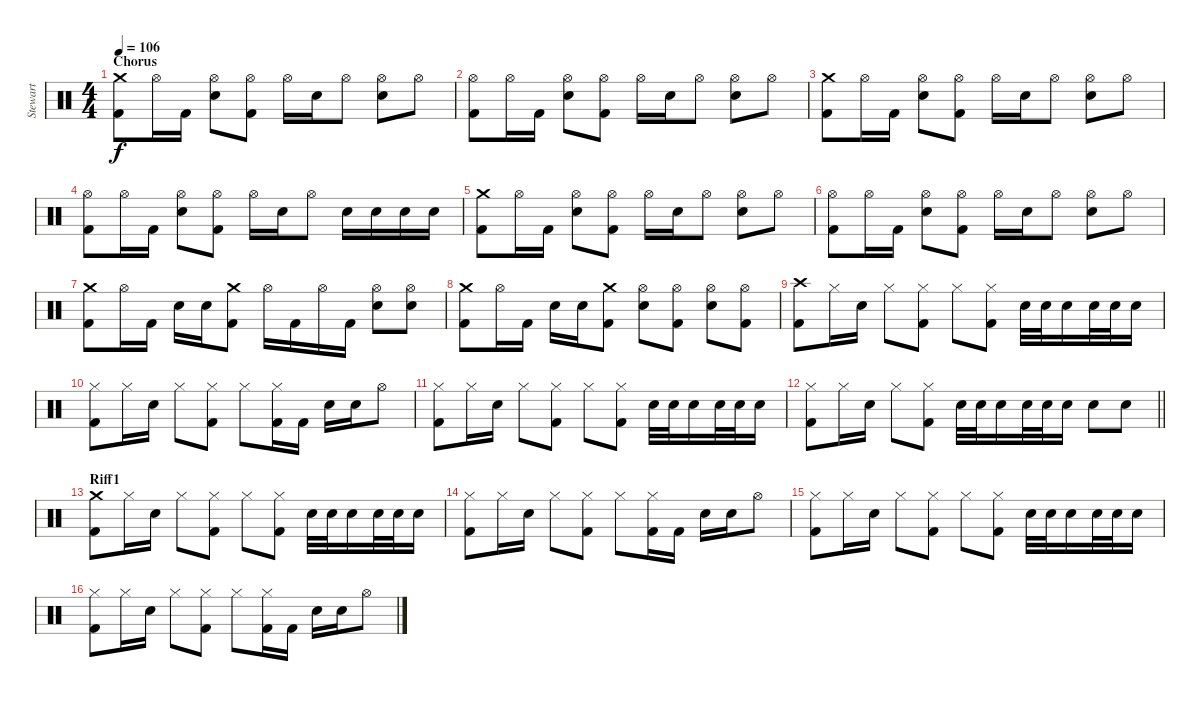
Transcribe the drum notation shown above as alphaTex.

\track ("Stewart" "Stewart") {instrument percussion}
\staff {score}
\articulation defaults
\ts (4 4)
\section ("" "Chorus")
\tempo 106
\clef neutral
\ks c
("Crash medium (hit)" "Kick (hit) 2").8{dy f} "Hi-Hat (open)".16 "Kick (hit) 2".16 ("Hi-Hat (open)" "Electric Snare (hit)").8 ("Hi-Hat (open)" "Kick (hit) 2").8 "Hi-Hat (open)".16 "Electric Snare (hit)".16 "Hi-Hat (open)".8 ("Hi-Hat (open)" "Electric Snare (hit)").8 "Hi-Hat (open)".8 |
("Hi-Hat (open)" "Kick (hit) 2").8 "Hi-Hat (open)".16 "Kick (hit) 2".16 ("Hi-Hat (open)" "Electric Snare (hit)").8 ("Hi-Hat (open)" "Kick (hit) 2").8 "Hi-Hat (open)".16 "Electric Snare (hit)".16 "Hi-Hat (open)".8 ("Hi-Hat (open)" "Electric Snare (hit)").8 "Hi-Hat (open)".8 |
("Crash medium (hit)" "Kick (hit) 2").8 "Hi-Hat (open)".16 "Kick (hit) 2".16 ("Hi-Hat (open)" "Electric Snare (hit)").8 ("Hi-Hat (open)" "Kick (hit) 2").8 "Hi-Hat (open)".16 "Electric Snare (hit)".16 "Hi-Hat (open)".8 ("Hi-Hat (open)" "Electric Snare (hit)").8 "Hi-Hat (open)".8 |
("Hi-Hat (open)" "Kick (hit) 2").8 "Hi-Hat (open)".16 "Kick (hit) 2".16 ("Hi-Hat (open)" "Electric Snare (hit)").8 ("Hi-Hat (open)" "Kick (hit) 2").8 "Hi-Hat (open)".16 "Electric Snare (hit)".16 "Hi-Hat (open)".8 "Electric Snare (hit)".16 "Electric Snare (hit)".16 "Electric Snare (hit)".16 "Electric Snare (hit)".16 |
("Crash medium (hit)" "Kick (hit) 2").8 "Hi-Hat (open)".16 "Kick (hit) 2".16 ("Hi-Hat (open)" "Electric Snare (hit)").8 ("Hi-Hat (open)" "Kick (hit) 2").8 "Hi-Hat (open)".16 "Electric Snare (hit)".16 "Hi-Hat (open)".8 ("Hi-Hat (open)" "Electric Snare (hit)").8 "Hi-Hat (open)".8 |
("Hi-Hat (open)" "Kick (hit) 2").8 "Hi-Hat (open)".16 "Kick (hit) 2".16 ("Hi-Hat (open)" "Electric Snare (hit)").8 ("Hi-Hat (open)" "Kick (hit) 2").8 "Hi-Hat (open)".16 "Electric Snare (hit)".16 "Hi-Hat (open)".8 ("Hi-Hat (open)" "Electric Snare (hit)").8 "Hi-Hat (open)".8 |
("Crash medium (hit)" "Kick (hit) 2").8 "Hi-Hat (open)".16 "Kick (hit) 2".16 "Electric Snare (hit)".16 "Electric Snare (hit)".16 ("Crash medium (hit)" "Kick (hit) 2").8 "Hi-Hat (open)".16 "Kick (hit) 2".16 "Hi-Hat (open)".16 "Kick (hit) 2".16 ("Hi-Hat (open)" "Electric Snare (hit)").8 ("Hi-Hat (open)" "Electric Snare (hit)").8 |
("Crash medium (hit)" "Kick (hit) 2").8 "Hi-Hat (open)".16 "Kick (hit) 2".16 "Electric Snare (hit)".16 "Electric Snare (hit)".16 ("Crash medium (hit)" "Kick (hit) 2").8 ("Hi-Hat (open)" "Electric Snare (hit)").8 ("Hi-Hat (open)" "Kick (hit) 2").8 ("Hi-Hat (open)" "Electric Snare (hit)").8 ("Hi-Hat (open)" "Kick (hit) 2").8 |
("Crash high (hit)" "Kick (hit) 2").8 "Hi-Hat (closed)".16 "Electric Snare (hit)".16 "Hi-Hat (closed)".8 ("Hi-Hat (closed)" "Kick (hit) 2").8 "Hi-Hat (closed)".8 ("Hi-Hat (closed)" "Kick (hit) 2").8 "Electric Snare (hit)".32 "Electric Snare (hit)".32 "Electric Snare (hit)".16 "Electric Snare (hit)".32 "Electric Snare (hit)".32 "Electric Snare (hit)".16 |
("Hi-Hat (closed)" "Kick (hit) 2").8 "Hi-Hat (closed)".16 "Electric Snare (hit)".16 "Hi-Hat (closed)".8 ("Hi-Hat (closed)" "Kick (hit) 2").8 "Hi-Hat (closed)".8 ("Hi-Hat (closed)" "Kick (hit) 2").16 "Kick (hit) 2".16 "Electric Snare (hit)".16 "Electric Snare (hit)".16 "Hi-Hat (open)".8 |
("Hi-Hat (closed)" "Kick (hit) 2").8 "Hi-Hat (closed)".16 "Electric Snare (hit)".16 "Hi-Hat (closed)".8 ("Hi-Hat (closed)" "Kick (hit) 2").8 "Hi-Hat (closed)".8 ("Hi-Hat (closed)" "Kick (hit) 2").8 "Electric Snare (hit)".32 "Electric Snare (hit)".32 "Electric Snare (hit)".16 "Electric Snare (hit)".32 "Electric Snare (hit)".32 "Electric Snare (hit)".16 |
\barLineRight lightlight
("Hi-Hat (closed)" "Kick (hit) 2").8 "Hi-Hat (closed)".16 "Electric Snare (hit)".16 "Hi-Hat (closed)".8 ("Hi-Hat (closed)" "Kick (hit) 2").8 "Electric Snare (hit)".32 "Electric Snare (hit)".32 "Electric Snare (hit)".16 "Electric Snare (hit)".32 "Electric Snare (hit)".32 "Electric Snare (hit)".16 "Electric Snare (hit)".8 "Electric Snare (hit)".8 |
\section ("" "Riff1")
("Crash medium (hit)" "Kick (hit) 2").8 "Hi-Hat (closed)".16 "Electric Snare (hit)".16 "Hi-Hat (closed)".8 ("Hi-Hat (closed)" "Kick (hit) 2").8 "Hi-Hat (closed)".8 ("Hi-Hat (closed)" "Kick (hit) 2").8 "Electric Snare (hit)".32 "Electric Snare (hit)".32 "Electric Snare (hit)".16 "Electric Snare (hit)".32 "Electric Snare (hit)".32 "Electric Snare (hit)".16 |
("Hi-Hat (closed)" "Kick (hit) 2").8 "Hi-Hat (closed)".16 "Electric Snare (hit)".16 "Hi-Hat (closed)".8 ("Hi-Hat (closed)" "Kick (hit) 2").8 "Hi-Hat (closed)".8 ("Hi-Hat (closed)" "Kick (hit) 2").16 "Kick (hit) 2".16 "Electric Snare (hit)".16 "Electric Snare (hit)".16 "Hi-Hat (open)".8 |
("Hi-Hat (closed)" "Kick (hit) 2").8 "Hi-Hat (closed)".16 "Electric Snare (hit)".16 "Hi-Hat (closed)".8 ("Hi-Hat (closed)" "Kick (hit) 2").8 "Hi-Hat (closed)".8 ("Hi-Hat (closed)" "Kick (hit) 2").8 "Electric Snare (hit)".32 "Electric Snare (hit)".32 "Electric Snare (hit)".16 "Electric Snare (hit)".32 "Electric Snare (hit)".32 "Electric Snare (hit)".16 |
("Hi-Hat (closed)" "Kick (hit) 2").8 "Hi-Hat (closed)".16 "Electric Snare (hit)".16 "Hi-Hat (closed)".8 ("Hi-Hat (closed)" "Kick (hit) 2").8 "Hi-Hat (closed)".8 ("Hi-Hat (closed)" "Kick (hit) 2").16 "Kick (hit) 2".16 "Electric Snare (hit)".16 "Electric Snare (hit)".16 "Hi-Hat (open)".8
